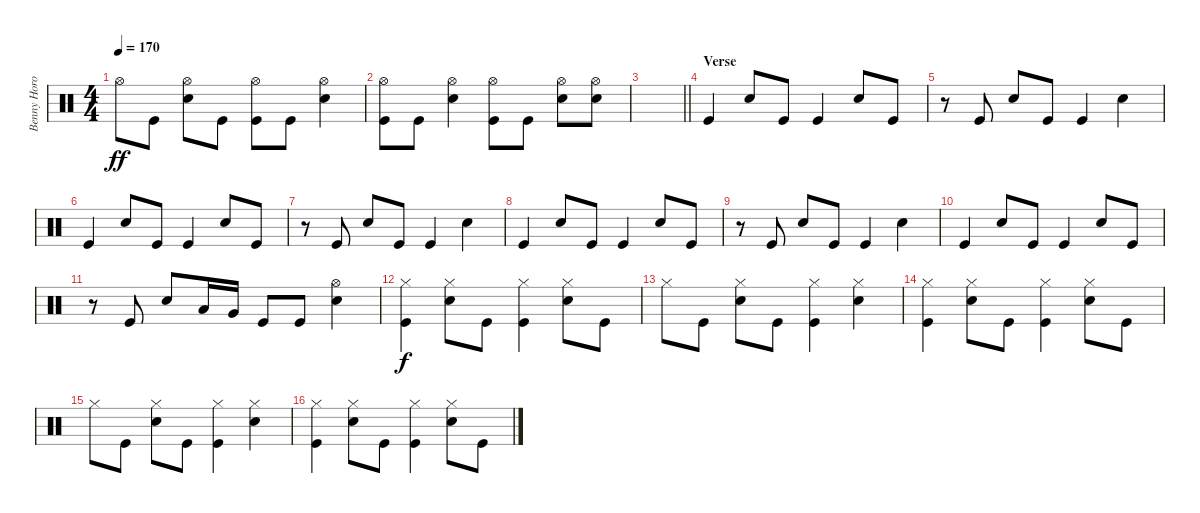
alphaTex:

\track ("Benny Horowitz" "Benny Horo") {instrument percussion}
\staff {score}
\articulation defaults
\ts (4 4)
\tempo 170
\clef neutral
\ks c "Hi-Hat (open)".8{dy ff} "Kick (hit)".8
("Snare (hit) 2" "Hi-Hat (open)").8 "Kick (hit)".8 ("Kick (hit)" "Hi-Hat (open)").8 "Kick (hit)".8 ("Snare (hit) 2" "Hi-Hat (open)").4 |
("Kick (hit)" "Hi-Hat (open)").8 "Kick (hit)".8 ("Snare (hit) 2" "Hi-Hat (open)").4 ("Kick (hit)" "Hi-Hat (open)").8 "Kick (hit)".8 ("Snare (hit) 2" "Hi-Hat (open)").8 ("Snare (hit) 2" "Hi-Hat (open)").8 |
\barLineRight lightlight
|
\section ("" "Verse")
"Kick (hit)".4 "Snare (hit) 2".8 "Kick (hit)".8 "Kick (hit)".4 "Snare (hit) 2".8 "Kick (hit)".8 |
r.8 "Kick (hit)".8 "Snare (hit) 2".8 "Kick (hit)".8 "Kick (hit)".4 "Snare (hit) 2".4 |
"Kick (hit)".4 "Snare (hit) 2".8 "Kick (hit)".8 "Kick (hit)".4 "Snare (hit) 2".8 "Kick (hit)".8 |
r.8 "Kick (hit)".8 "Snare (hit) 2".8 "Kick (hit)".8 "Kick (hit)".4 "Snare (hit) 2".4 |
"Kick (hit)".4 "Snare (hit) 2".8 "Kick (hit)".8 "Kick (hit)".4 "Snare (hit) 2".8 "Kick (hit)".8 |
r.8 "Kick (hit)".8 "Snare (hit) 2".8 "Kick (hit)".8 "Kick (hit)".4 "Snare (hit) 2".4 |
"Kick (hit)".4 "Snare (hit) 2".8 "Kick (hit)".8 "Kick (hit)".4 "Snare (hit) 2".8 "Kick (hit)".8 |
r.8 "Kick (hit)".8 "Snare (hit) 2".8 "Low Tom (hit)".16 "Very Low Tom (hit)".16 "Kick (hit)".8 "Kick (hit)".8 ("Snare (hit) 2" "Hi-Hat (open)").4 |
("Kick (hit)" "Hi-Hat (closed)").4{dy f} ("Snare (hit) 2" "Hi-Hat (closed)").8 "Kick (hit)".8 ("Kick (hit)" "Hi-Hat (closed)").4 ("Snare (hit) 2" "Hi-Hat (closed)").8 "Kick (hit)".8 |
"Hi-Hat (closed)".8 "Kick (hit)".8 ("Snare (hit) 2" "Hi-Hat (closed)").8 "Kick (hit)".8 ("Kick (hit)" "Hi-Hat (closed)").4 ("Snare (hit) 2" "Hi-Hat (closed)").4 |
("Kick (hit)" "Hi-Hat (closed)").4 ("Snare (hit) 2" "Hi-Hat (closed)").8 "Kick (hit)".8 ("Kick (hit)" "Hi-Hat (closed)").4 ("Snare (hit) 2" "Hi-Hat (closed)").8 "Kick (hit)".8 |
"Hi-Hat (closed)".8 "Kick (hit)".8 ("Snare (hit) 2" "Hi-Hat (closed)").8 "Kick (hit)".8 ("Kick (hit)" "Hi-Hat (closed)").4 ("Snare (hit) 2" "Hi-Hat (closed)").4 |
("Kick (hit)" "Hi-Hat (closed)").4 ("Snare (hit) 2" "Hi-Hat (closed)").8 "Kick (hit)".8 ("Kick (hit)" "Hi-Hat (closed)").4 ("Snare (hit) 2" "Hi-Hat (closed)").8 "Kick (hit)".8
